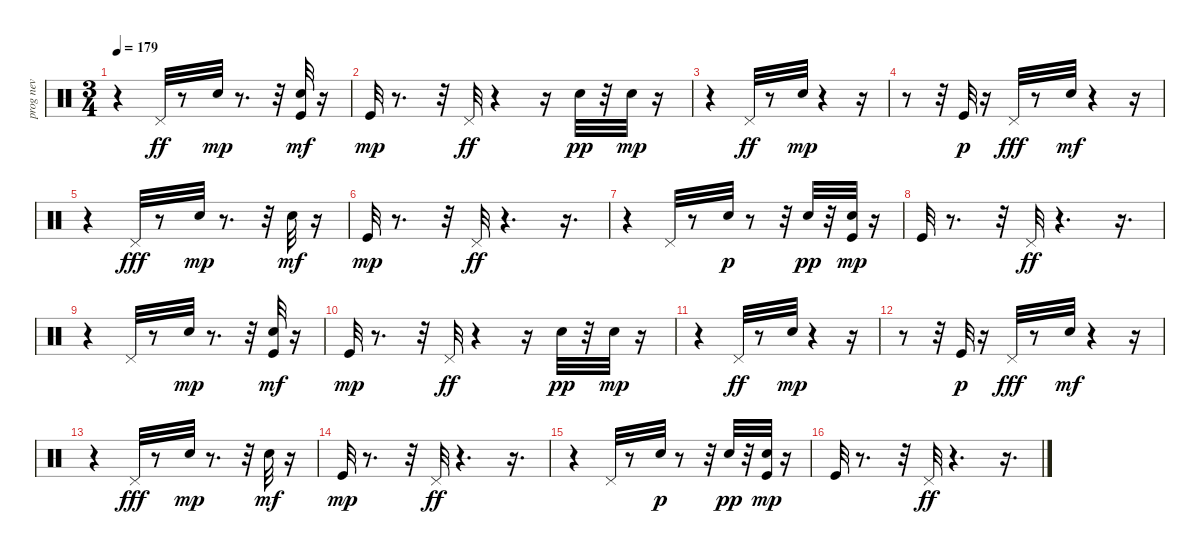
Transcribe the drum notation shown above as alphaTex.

\track ("prog nev" "prog nev") {instrument percussion}
\staff {score}
\articulation defaults
\ts (3 4)
\tempo 179
\clef neutral
\ks c
r.4{dy ff} "Pedal Hi-Hat (hit)".32 r.8 "Snare (hit) 2".32{dy mp} r.8{d} r.32 ("Kick (hit)" "Snare (hit) 2").32{dy mf} r.16 |
"Kick (hit)".32{dy mp} r.8{d} r.32 "Pedal Hi-Hat (hit)".32{dy ff} r.4 r.16 "Snare (hit) 2".32{dy pp} r.32 "Snare (hit) 2".32{dy mp} r.16 |
r.4 "Pedal Hi-Hat (hit)".32{dy ff} r.8 "Snare (hit) 2".32{dy mp} r.4 r.16 |
r.8 r.32 "Kick (hit)".32{dy p} r.16 "Pedal Hi-Hat (hit)".32{dy fff} r.8 "Hand Clap (hit)".32{dy mf} r.4 r.16 |
r.4 "Pedal Hi-Hat (hit)".32{dy fff} r.8 "Snare (hit) 2".32{dy mp} r.8{d} r.32 "Snare (hit) 2".32{dy mf} r.16 |
"Kick (hit)".32{dy mp} r.8{d} r.32 "Pedal Hi-Hat (hit)".32{dy ff} r.4{d} r.16{d} |
r.4 "Pedal Hi-Hat (hit)".32 r.8 "Hand Clap (hit)".32{dy p} r.8 r.32 "Snare (hit) 2".32{dy pp} r.32 ("Kick (hit)" "Snare (hit) 2").32{dy mp} r.16 |
"Kick (hit)".32 r.8{d} r.32 "Pedal Hi-Hat (hit)".32{dy ff} r.4{d} r.16{d} |
r.4 "Pedal Hi-Hat (hit)".32 r.8 "Snare (hit) 2".32{dy mp} r.8{d} r.32 ("Kick (hit)" "Snare (hit) 2").32{dy mf} r.16 |
"Kick (hit)".32{dy mp} r.8{d} r.32 "Pedal Hi-Hat (hit)".32{dy ff} r.4 r.16 "Snare (hit) 2".32{dy pp} r.32 "Snare (hit) 2".32{dy mp} r.16 |
r.4 "Pedal Hi-Hat (hit)".32{dy ff} r.8 "Snare (hit) 2".32{dy mp} r.4 r.16 |
r.8 r.32 "Kick (hit)".32{dy p} r.16 "Pedal Hi-Hat (hit)".32{dy fff} r.8 "Hand Clap (hit)".32{dy mf} r.4 r.16 |
r.4 "Pedal Hi-Hat (hit)".32{dy fff} r.8 "Snare (hit) 2".32{dy mp} r.8{d} r.32 "Snare (hit) 2".32{dy mf} r.16 |
"Kick (hit)".32{dy mp} r.8{d} r.32 "Pedal Hi-Hat (hit)".32{dy ff} r.4{d} r.16{d} |
r.4 "Pedal Hi-Hat (hit)".32 r.8 "Hand Clap (hit)".32{dy p} r.8 r.32 "Snare (hit) 2".32{dy pp} r.32 ("Kick (hit)" "Snare (hit) 2").32{dy mp} r.16 |
"Kick (hit)".32 r.8{d} r.32 "Pedal Hi-Hat (hit)".32{dy ff} r.4{d} r.16{d}
